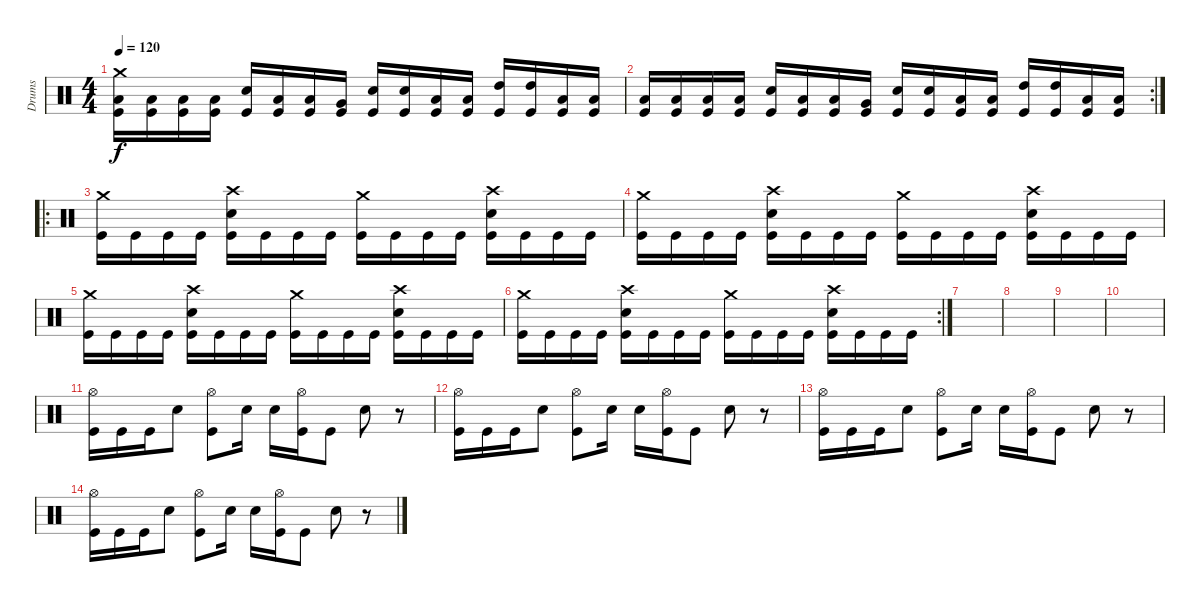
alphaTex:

\track ("Drums" "Drums") {instrument percussion}
\staff {score}
\articulation defaults
\ts (4 4)
\tempo 120
\clef neutral
\ks c
("Crash medium (hit)" "Low Floor Tom (hit)" "Kick (hit)").16{dy f} ("Low Floor Tom (hit)" "Kick (hit)").16 ("Low Floor Tom (hit)" "Kick (hit)").16 ("Low Floor Tom (hit)" "Kick (hit)").16 ("Snare (hit) 2" "Kick (hit)").16 ("Low Floor Tom (hit)" "Kick (hit)").16 ("Low Tom (hit)" "Kick (hit)").16 ("Very Low Tom (hit)" "Kick (hit)").16 ("Snare (hit) 2" "Kick (hit)").16 ("Snare (hit) 2" "Kick (hit)").16 ("Low Tom (hit)" "Kick (hit)").16 ("Low Tom (hit)" "Kick (hit)").16 ("High Tom (hit)" "Kick (hit)").16 ("High Tom (hit)" "Kick (hit)").16 ("Low Tom (hit)" "Kick (hit)").16 ("Low Tom (hit)" "Kick (hit)").16 |
\rc 2
("Low Floor Tom (hit)" "Kick (hit)").16 ("Low Floor Tom (hit)" "Kick (hit)").16 ("Low Floor Tom (hit)" "Kick (hit)").16 ("Low Floor Tom (hit)" "Kick (hit)").16 ("Snare (hit) 2" "Kick (hit)").16 ("Low Floor Tom (hit)" "Kick (hit)").16 ("Low Tom (hit)" "Kick (hit)").16 ("Very Low Tom (hit)" "Kick (hit)").16 ("Snare (hit) 2" "Kick (hit)").16 ("Snare (hit) 2" "Kick (hit)").16 ("Low Tom (hit)" "Kick (hit)").16 ("Low Tom (hit)" "Kick (hit)").16 ("High Tom (hit)" "Kick (hit)").16 ("High Tom (hit)" "Kick (hit)").16 ("Low Tom (hit)" "Kick (hit)").16 ("Low Tom (hit)" "Kick (hit)").16 |
\ro
("Crash medium (hit)" "Kick (hit)").16 "Kick (hit)".16 "Kick (hit)".16 "Kick (hit)".16 ("Crash high (hit)" "Snare (hit) 2" "Kick (hit)").16 "Kick (hit)".16 "Kick (hit)".16 "Kick (hit)".16 ("Crash medium (hit)" "Kick (hit)").16 "Kick (hit)".16 "Kick (hit)".16 "Kick (hit)".16 ("Crash high (hit)" "Snare (hit) 2" "Kick (hit)").16 "Kick (hit)".16 "Kick (hit)".16 "Kick (hit)".16 |
("Crash medium (hit)" "Kick (hit)").16 "Kick (hit)".16 "Kick (hit)".16 "Kick (hit)".16 ("Crash high (hit)" "Snare (hit) 2" "Kick (hit)").16 "Kick (hit)".16 "Kick (hit)".16 "Kick (hit)".16 ("Crash medium (hit)" "Kick (hit)").16 "Kick (hit)".16 "Kick (hit)".16 "Kick (hit)".16 ("Crash high (hit)" "Snare (hit) 2" "Kick (hit)").16 "Kick (hit)".16 "Kick (hit)".16 "Kick (hit)".16 |
("Crash medium (hit)" "Kick (hit)").16 "Kick (hit)".16 "Kick (hit)".16 "Kick (hit)".16 ("Crash high (hit)" "Snare (hit) 2" "Kick (hit)").16 "Kick (hit)".16 "Kick (hit)".16 "Kick (hit)".16 ("Crash medium (hit)" "Kick (hit)").16 "Kick (hit)".16 "Kick (hit)".16 "Kick (hit)".16 ("Crash high (hit)" "Snare (hit) 2" "Kick (hit)").16 "Kick (hit)".16 "Kick (hit)".16 "Kick (hit)".16 |
\rc 2
("Crash medium (hit)" "Kick (hit)").16 "Kick (hit)".16 "Kick (hit)".16 "Kick (hit)".16 ("Crash high (hit)" "Snare (hit) 2" "Kick (hit)").16 "Kick (hit)".16 "Kick (hit)".16 "Kick (hit)".16 ("Crash medium (hit)" "Kick (hit)").16 "Kick (hit)".16 "Kick (hit)".16 "Kick (hit)".16 ("Crash high (hit)" "Snare (hit) 2" "Kick (hit)").16 "Kick (hit)".16 "Kick (hit)".16 "Kick (hit)".16 |
|
|
|
|
("Hi-Hat (open)" "Kick (hit)").16 "Kick (hit)".16 "Kick (hit)".16 "Snare (hit) 2".8 ("Hi-Hat (open)" "Kick (hit)").8 "Snare (hit) 2".16 "Snare (hit) 2".16 ("Hi-Hat (open)" "Kick (hit)").16 "Kick (hit)".8 "Snare (hit) 2".8 r.8 |
("Hi-Hat (open)" "Kick (hit)").16 "Kick (hit)".16 "Kick (hit)".16 "Snare (hit) 2".8 ("Hi-Hat (open)" "Kick (hit)").8 "Snare (hit) 2".16 "Snare (hit) 2".16 ("Hi-Hat (open)" "Kick (hit)").16 "Kick (hit)".8 "Snare (hit) 2".8 r.8 |
("Hi-Hat (open)" "Kick (hit)").16 "Kick (hit)".16 "Kick (hit)".16 "Snare (hit) 2".8 ("Hi-Hat (open)" "Kick (hit)").8 "Snare (hit) 2".16 "Snare (hit) 2".16 ("Hi-Hat (open)" "Kick (hit)").16 "Kick (hit)".8 "Snare (hit) 2".8 r.8 |
("Hi-Hat (open)" "Kick (hit)").16 "Kick (hit)".16 "Kick (hit)".16 "Snare (hit) 2".8 ("Hi-Hat (open)" "Kick (hit)").8 "Snare (hit) 2".16 "Snare (hit) 2".16 ("Hi-Hat (open)" "Kick (hit)").16 "Kick (hit)".8 "Snare (hit) 2".8 r.8
